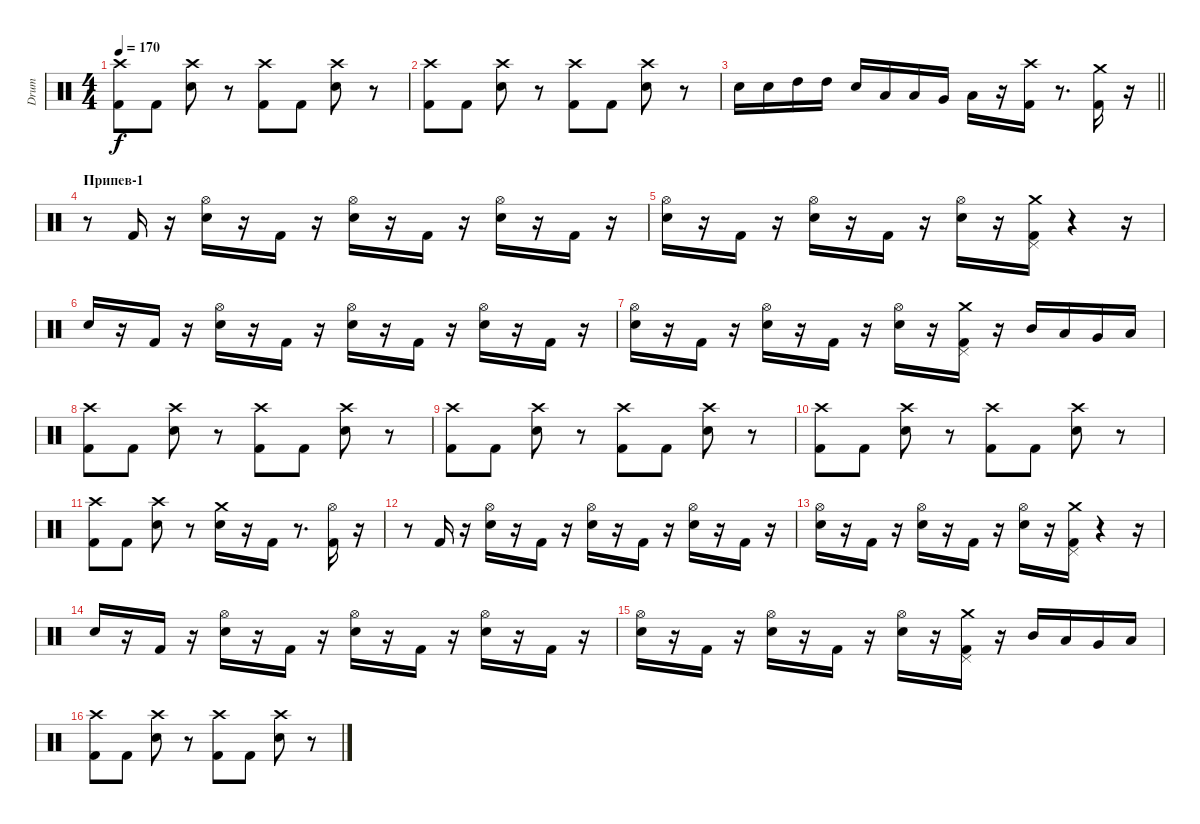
\track ("Drum" "Drum") {instrument percussion}
\staff {score}
\articulation defaults
\ts (4 4)
\tempo 170
\clef neutral
\ks c
("Crash high (hit)" "Kick (hit) 2").8{dy f} "Kick (hit) 2".8 ("Crash high (hit)" "Snare (hit) 2").8 r.8 ("Crash high (hit)" "Kick (hit) 2").8 "Kick (hit) 2".8 ("Crash high (hit)" "Snare (hit) 2").8 r.8 |
("Crash high (hit)" "Kick (hit) 2").8 "Kick (hit) 2".8 ("Crash high (hit)" "Snare (hit) 2").8 r.8 ("Crash high (hit)" "Kick (hit) 2").8 "Kick (hit) 2".8 ("Crash high (hit)" "Snare (hit) 2").8 r.8 |
\barLineRight lightlight "Snare (hit) 2".16 "Snare (hit) 2".16 "High Tom (hit)".16 "High Tom (hit)".16 "Snare (hit) 2".16 "Low Tom (hit)".16 "Low Tom (hit)".16 "Very Low Tom (hit)".16 "Low Floor Tom (hit)".16
r.16 ("Crash high (hit)" "Kick (hit) 2").16 r.8{d} ("Crash medium (hit)" "Kick (hit) 2").16 r.16 |
\section ("" "Припев-1")
r.8 "Kick (hit) 2".16 r.16 ("Snare (hit) 2" "Hi-Hat (open)").16 r.16 "Kick (hit) 2".16 r.16 ("Hi-Hat (open)" "Snare (hit) 2").16 r.16 "Kick (hit) 2".16 r.16 ("Snare (hit) 2" "Hi-Hat (open)").16 r.16 "Kick (hit) 2".16 r.16 |
("Hi-Hat (open)" "Snare (hit) 2").16 r.16 "Kick (hit) 2".16 r.16 ("Hi-Hat (open)" "Snare (hit) 2").16 r.16 "Kick (hit) 2".16 r.16 ("Snare (hit) 2" "Hi-Hat (open)").16 r.16 ("Crash medium (hit)" "Pedal Hi-Hat (hit)" "Kick (hit) 2").16 r.4 r.16 |
"Snare (hit) 2".16 r.16 "Kick (hit) 2".16 r.16 ("Hi-Hat (open)" "Snare (hit) 2").16 r.16 "Kick (hit) 2".16 r.16 ("Hi-Hat (open)" "Snare (hit) 2").16 r.16 "Kick (hit) 2".16 r.16 ("Hi-Hat (open)" "Snare (hit) 2").16 r.16 "Kick (hit) 2".16 r.16 |
("Hi-Hat (open)" "Snare (hit) 2").16 r.16 "Kick (hit) 2".16 r.16 ("Hi-Hat (open)" "Snare (hit) 2").16 r.16 "Kick (hit) 2".16 r.16 ("Hi-Hat (open)" "Snare (hit) 2").16 r.16 ("Crash medium (hit)" "Pedal Hi-Hat (hit)" "Kick (hit) 2").16 r.16 "Mid Tom (hit)".16 "Low Tom (hit)".16 "Very Low Tom (hit)".16 "Low Floor Tom (hit)".16 |
("Crash high (hit)" "Kick (hit) 2").8 "Kick (hit) 2".8 ("Crash high (hit)" "Snare (hit) 2").8 r.8 ("Crash high (hit)" "Kick (hit) 2").8 "Kick (hit) 2".8 ("Crash high (hit)" "Snare (hit) 2").8 r.8 |
("Crash high (hit)" "Kick (hit) 2").8 "Kick (hit) 2".8 ("Crash high (hit)" "Snare (hit) 2").8 r.8 ("Crash high (hit)" "Kick (hit) 2").8 "Kick (hit) 2".8 ("Crash high (hit)" "Snare (hit) 2").8 r.8 |
("Crash high (hit)" "Kick (hit) 2").8 "Kick (hit) 2".8 ("Crash high (hit)" "Snare (hit) 2").8 r.8 ("Crash high (hit)" "Kick (hit) 2").8 "Kick (hit) 2".8 ("Crash high (hit)" "Snare (hit) 2").8 r.8 |
("Crash high (hit)" "Kick (hit) 2").8 "Kick (hit) 2".8 ("Crash high (hit)" "Snare (hit) 2").8 r.8 ("Crash medium (hit)" "Electric Snare (hit)").16 r.16 "Kick (hit) 2".16 r.8{d} ("Hi-Hat (open)" "Kick (hit) 2").16 r.16 |
r.8 "Kick (hit) 2".16 r.16 ("Snare (hit) 2" "Hi-Hat (open)").16 r.16 "Kick (hit) 2".16 r.16 ("Hi-Hat (open)" "Snare (hit) 2").16 r.16 "Kick (hit) 2".16 r.16 ("Snare (hit) 2" "Hi-Hat (open)").16 r.16 "Kick (hit) 2".16 r.16 |
("Hi-Hat (open)" "Snare (hit) 2").16 r.16 "Kick (hit) 2".16 r.16 ("Hi-Hat (open)" "Snare (hit) 2").16 r.16 "Kick (hit) 2".16 r.16 ("Snare (hit) 2" "Hi-Hat (open)").16 r.16 ("Crash medium (hit)" "Pedal Hi-Hat (hit)" "Kick (hit) 2").16 r.4 r.16 |
"Snare (hit) 2".16 r.16 "Kick (hit) 2".16 r.16 ("Hi-Hat (open)" "Snare (hit) 2").16 r.16 "Kick (hit) 2".16 r.16 ("Hi-Hat (open)" "Snare (hit) 2").16 r.16 "Kick (hit) 2".16 r.16 ("Hi-Hat (open)" "Snare (hit) 2").16 r.16 "Kick (hit) 2".16 r.16 |
("Hi-Hat (open)" "Snare (hit) 2").16 r.16 "Kick (hit) 2".16 r.16 ("Hi-Hat (open)" "Snare (hit) 2").16 r.16 "Kick (hit) 2".16 r.16 ("Hi-Hat (open)" "Snare (hit) 2").16 r.16 ("Crash medium (hit)" "Pedal Hi-Hat (hit)" "Kick (hit) 2").16 r.16 "Mid Tom (hit)".16 "Low Tom (hit)".16 "Very Low Tom (hit)".16 "Low Floor Tom (hit)".16 |
("Crash high (hit)" "Kick (hit) 2").8 "Kick (hit) 2".8 ("Crash high (hit)" "Snare (hit) 2").8 r.8 ("Crash high (hit)" "Kick (hit) 2").8 "Kick (hit) 2".8 ("Crash high (hit)" "Snare (hit) 2").8 r.8
